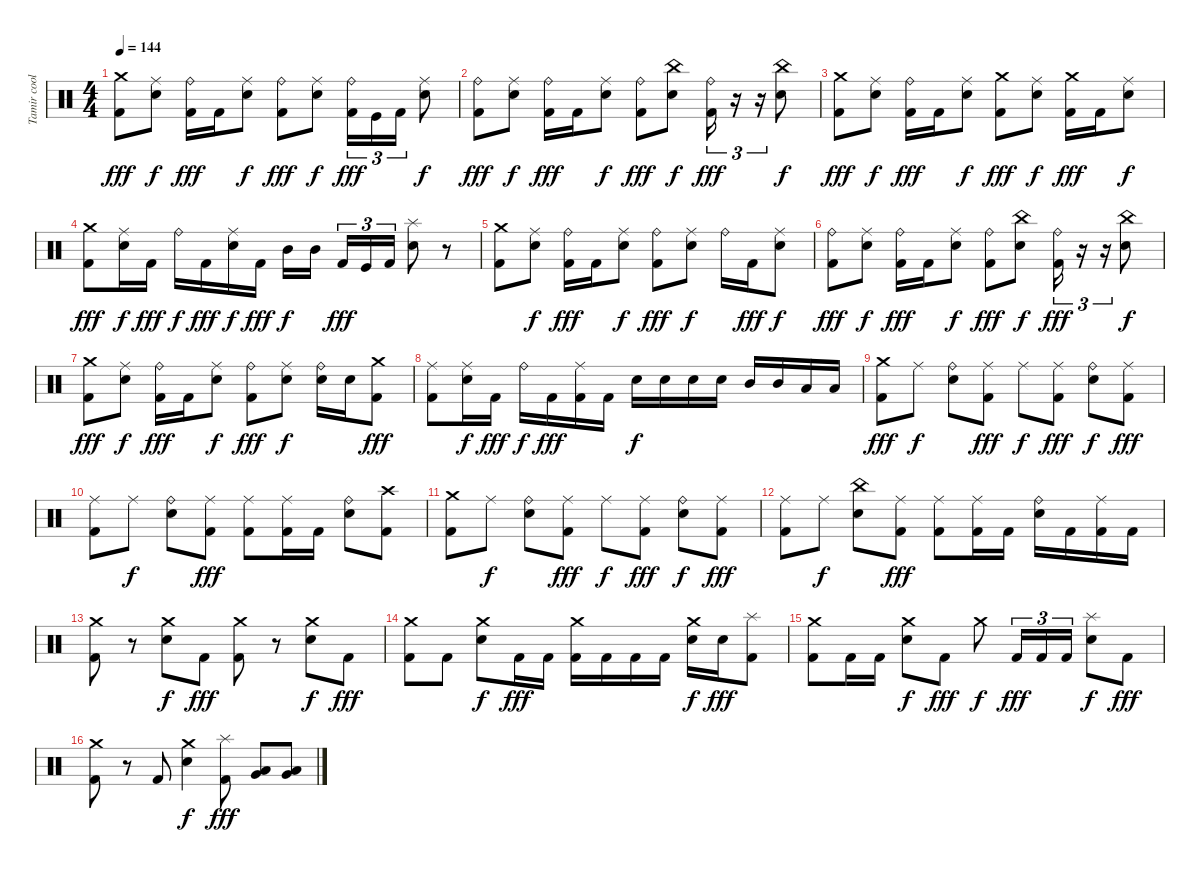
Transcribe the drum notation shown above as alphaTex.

\track ("Tamir coolberg" "Tamir cool") {instrument percussion}
\staff {score}
\articulation defaults
\ts (4 4)
\tempo 144
\clef neutral
\ks c
("Crash medium (hit)" "Kick (hit) 2").8{dy fff} ("Ride (middle)" "Snare (hit) 2").8{dy f} ("Ride (bell)" "Kick (hit) 2").16{dy fff} "Kick (hit) 2".16 ("Ride (middle)" "Snare (hit) 2").8{dy f} ("Ride (bell)" "Kick (hit) 2").8{dy fff} ("Ride (middle)" "Snare (hit) 2").8{dy f} ("Ride (bell)" "Kick (hit) 2").16{tu (3 2) dy fff} "Kick (hit)".16{tu (3 2)} "Kick (hit) 2".16{tu (3 2)} ("Ride (middle)" "Snare (hit) 2").8{dy f} |
("Ride (bell)" "Kick (hit) 2").8{dy fff} ("Ride (middle)" "Snare (hit) 2").8{dy f} ("Ride (bell)" "Kick (hit) 2").16{dy fff} "Kick (hit) 2".16 ("Ride (middle)" "Snare (hit) 2").8{dy f} ("Ride (bell)" "Kick (hit) 2").8{dy fff} ("China (hit)" "Snare (hit) 2").8{dy f} ("Ride (bell)" "Kick (hit) 2").16{tu (3 2) dy fff} r.16{tu (3 2)} r.16{tu (3 2)} ("China (hit)" "Snare (hit) 2").8{dy f} |
("Crash medium (hit)" "Kick (hit) 2").8{dy fff} ("Ride (middle)" "Snare (hit) 2").8{dy f} ("Ride (bell)" "Kick (hit) 2").16{dy fff} "Kick (hit) 2".16 ("Ride (middle)" "Snare (hit) 2").8{dy f} ("Crash medium (hit)" "Kick (hit) 2").8{dy fff} ("Ride (middle)" "Snare (hit) 2").8{dy f} ("Crash medium (hit)" "Kick (hit) 2").16{dy fff} "Kick (hit) 2".16 ("Ride (middle)" "Snare (hit) 2").8{dy f} |
("Crash medium (hit)" "Kick (hit) 2").8{dy fff} ("Ride (middle)" "Snare (hit) 2").16{dy f} "Kick (hit) 2".16{dy fff} "Ride (bell)".16{dy f} "Kick (hit) 2".16{dy fff} ("Ride (middle)" "Snare (hit) 2").16{dy f} "Kick (hit) 2".16{dy fff} "Mid Tom (hit)".16{dy f} "Mid Tom (hit)".16 "Kick (hit) 2".16{tu (3 2) dy fff} "Kick (hit)".16{tu (3 2)} "Kick (hit) 2".16{tu (3 2)} ("Splash (hit)" "Electric Snare (hit)").8 r.8 |
("Crash medium (hit)" "Kick (hit) 2").8 ("Ride (middle)" "Snare (hit) 2").8{dy f} ("Ride (bell)" "Kick (hit) 2").16{dy fff} "Kick (hit) 2".16 ("Ride (middle)" "Snare (hit) 2").8{dy f} ("Ride (bell)" "Kick (hit) 2").8{dy fff} ("Ride (middle)" "Snare (hit) 2").8{dy f} "Ride (bell)".16 "Kick (hit) 2".16{dy fff} ("Ride (middle)" "Snare (hit) 2").8{dy f} |
("Ride (bell)" "Kick (hit) 2").8{dy fff} ("Ride (middle)" "Snare (hit) 2").8{dy f} ("Ride (bell)" "Kick (hit) 2").16{dy fff} "Kick (hit) 2".16 ("Ride (middle)" "Snare (hit) 2").8{dy f} ("Ride (bell)" "Kick (hit) 2").8{dy fff} ("China (hit)" "Snare (hit) 2").8{dy f} ("Ride (bell)" "Kick (hit) 2").16{tu (3 2) dy fff} r.16{tu (3 2)} r.16{tu (3 2)} ("China (hit)" "Snare (hit) 2").8{dy f} |
("Crash medium (hit)" "Kick (hit) 2").8{dy fff} ("Ride (middle)" "Snare (hit) 2").8{dy f} ("Ride (bell)" "Kick (hit) 2").16{dy fff} "Kick (hit) 2".16 ("Ride (middle)" "Snare (hit) 2").8{dy f} ("Ride (bell)" "Kick (hit) 2").8{dy fff} ("Ride (middle)" "Snare (hit) 2").8{dy f} ("Ride (bell)" "Snare (hit) 2").16 "Snare (hit) 2".16 ("Crash medium (hit)" "Kick (hit) 2").8{dy fff} |
("Ride (middle)" "Kick (hit) 2").8 ("Ride (middle)" "Snare (hit) 2").16{dy f} "Kick (hit) 2".16{dy fff} "Ride (bell)".16{dy f} "Kick (hit) 2".16{dy fff} ("Ride (middle)" "Kick (hit) 2").16 "Kick (hit) 2".16 "Electric Snare (hit)".16{dy f} "Electric Snare (hit)".16 "Electric Snare (hit)".16 "Electric Snare (hit)".16 "Mid Tom (hit)".16 "Mid Tom (hit)".16 "Low Tom (hit)".16 "Low Tom (hit)".16 |
("Crash medium (hit)" "Kick (hit) 2").8{dy fff} "Ride (middle)".8{dy f} ("Ride (bell)" "Electric Snare (hit)").8 ("Ride (middle)" "Kick (hit) 2").8{dy fff} "Ride (middle)".8{dy f} ("Ride (middle)" "Kick (hit) 2").8{dy fff} ("Ride (bell)" "Electric Snare (hit)").8{dy f} ("Ride (middle)" "Kick (hit) 2").8{dy fff} |
("Ride (middle)" "Kick (hit) 2").8 "Ride (middle)".8{dy f} ("Ride (bell)" "Electric Snare (hit)").8 ("Ride (middle)" "Kick (hit) 2").8{dy fff} ("Ride (middle)" "Kick (hit) 2").8 ("Ride (middle)" "Kick (hit) 2").16 "Kick (hit) 2".16 ("Ride (bell)" "Electric Snare (hit)").8 ("Crash high (hit)" "Kick (hit) 2").8 |
("Crash medium (hit)" "Kick (hit) 2").8 "Ride (middle)".8{dy f} ("Ride (bell)" "Electric Snare (hit)").8 ("Ride (middle)" "Kick (hit) 2").8{dy fff} "Ride (middle)".8{dy f} ("Ride (middle)" "Kick (hit) 2").8{dy fff} ("Ride (bell)" "Electric Snare (hit)").8{dy f} ("Ride (middle)" "Kick (hit) 2").8{dy fff} |
("Ride (middle)" "Kick (hit) 2").8 "Ride (middle)".8{dy f} ("China (hit)" "Electric Snare (hit)").8 ("Ride (middle)" "Kick (hit) 2").8{dy fff} ("Ride (middle)" "Kick (hit) 2").8 ("Ride (middle)" "Kick (hit) 2").16 "Kick (hit) 2".16 ("Ride (bell)" "Electric Snare (hit)").16 "Kick (hit) 2".16 ("Ride (middle)" "Kick (hit) 2").16 "Kick (hit) 2".16 |
("Crash medium (hit)" "Kick (hit) 2").8 r.8 ("Crash medium (hit)" "Electric Snare (hit)").8{dy f} "Kick (hit) 2".8{dy fff} ("Crash medium (hit)" "Kick (hit) 2").8 r.8 ("Crash medium (hit)" "Electric Snare (hit)").8{dy f} "Kick (hit) 2".8{dy fff} |
("Crash medium (hit)" "Kick (hit) 2").8 "Kick (hit) 2".8 ("Crash medium (hit)" "Electric Snare (hit)").8{dy f} "Kick (hit) 2".16{dy fff} "Kick (hit) 2".16 ("Crash medium (hit)" "Kick (hit) 2").16 "Kick (hit) 2".16 "Kick (hit) 2".16 "Kick (hit) 2".16 ("Crash medium (hit)" "Electric Snare (hit)").16{dy f} "Electric Snare (hit)".16{dy fff} ("Splash (hit)" "Kick (hit) 2").8 |
("Crash medium (hit)" "Kick (hit) 2").8 "Kick (hit) 2".16 "Kick (hit) 2".16 ("Crash medium (hit)" "Electric Snare (hit)").8{dy f} "Kick (hit) 2".8{dy fff} "Crash medium (hit)".8{dy f} "Kick (hit) 2".16{tu (3 2) dy fff} "Kick (hit) 2".16{tu (3 2)} "Kick (hit) 2".16{tu (3 2)} ("Splash (hit)" "Electric Snare (hit)").8{dy f} "Kick (hit) 2".8{dy fff} |
("Crash medium (hit)" "Kick (hit) 2").8 r.8 "Kick (hit) 2".8 ("Crash medium (hit)" "Electric Snare (hit)").4{dy f} ("Splash (hit)" "Kick (hit) 2").8{dy fff} ("Low Tom (hit)" "Very Low Tom (hit)").8 ("Very Low Tom (hit)" "Low Floor Tom (hit)").8
